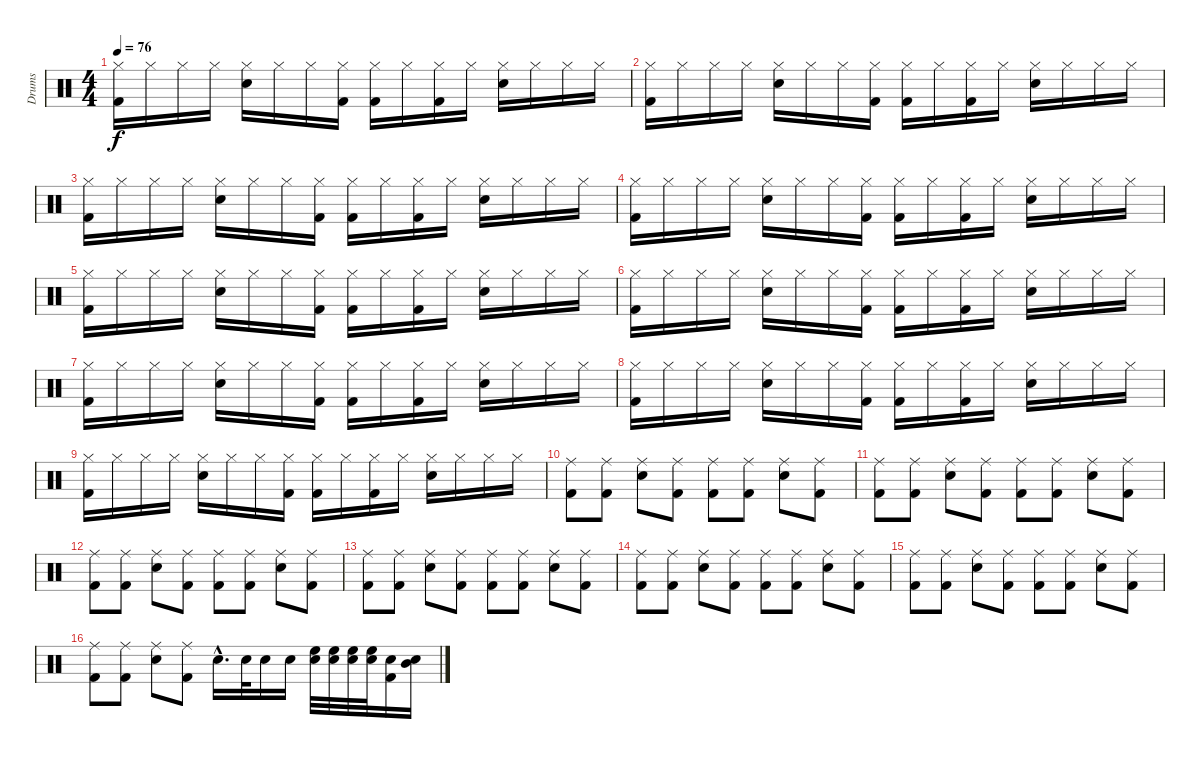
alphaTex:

\track ("Drums" "Drums") {instrument percussion}
\staff {score}
\articulation defaults
\ts (4 4)
\tempo 76
\clef neutral
\ks c
("Hi-Hat (closed)" "Kick (hit) 2").16{dy f} "Hi-Hat (closed)".16 "Hi-Hat (closed)".16 "Hi-Hat (closed)".16 ("Hi-Hat (closed)" "Snare (hit) 2").16 "Hi-Hat (closed)".16 "Hi-Hat (closed)".16 ("Hi-Hat (closed)" "Kick (hit) 2").16 ("Hi-Hat (closed)" "Kick (hit) 2").16 "Hi-Hat (closed)".16 ("Hi-Hat (closed)" "Kick (hit) 2").16 "Hi-Hat (closed)".16 ("Hi-Hat (closed)" "Snare (hit) 2").16 "Hi-Hat (closed)".16 "Hi-Hat (closed)".16 "Hi-Hat (closed)".16 |
("Hi-Hat (closed)" "Kick (hit) 2").16 "Hi-Hat (closed)".16 "Hi-Hat (closed)".16 "Hi-Hat (closed)".16 ("Hi-Hat (closed)" "Snare (hit) 2").16 "Hi-Hat (closed)".16 "Hi-Hat (closed)".16 ("Hi-Hat (closed)" "Kick (hit) 2").16 ("Hi-Hat (closed)" "Kick (hit) 2").16 "Hi-Hat (closed)".16 ("Hi-Hat (closed)" "Kick (hit) 2").16 "Hi-Hat (closed)".16 ("Hi-Hat (closed)" "Snare (hit) 2").16 "Hi-Hat (closed)".16 "Hi-Hat (closed)".16 "Hi-Hat (closed)".16 |
("Hi-Hat (closed)" "Kick (hit) 2").16 "Hi-Hat (closed)".16 "Hi-Hat (closed)".16 "Hi-Hat (closed)".16 ("Hi-Hat (closed)" "Snare (hit) 2").16 "Hi-Hat (closed)".16 "Hi-Hat (closed)".16 ("Hi-Hat (closed)" "Kick (hit) 2").16 ("Hi-Hat (closed)" "Kick (hit) 2").16 "Hi-Hat (closed)".16 ("Hi-Hat (closed)" "Kick (hit) 2").16 "Hi-Hat (closed)".16 ("Hi-Hat (closed)" "Snare (hit) 2").16 "Hi-Hat (closed)".16 "Hi-Hat (closed)".16 "Hi-Hat (closed)".16 |
("Hi-Hat (closed)" "Kick (hit) 2").16 "Hi-Hat (closed)".16 "Hi-Hat (closed)".16 "Hi-Hat (closed)".16 ("Hi-Hat (closed)" "Snare (hit) 2").16 "Hi-Hat (closed)".16 "Hi-Hat (closed)".16 ("Hi-Hat (closed)" "Kick (hit) 2").16 ("Hi-Hat (closed)" "Kick (hit) 2").16 "Hi-Hat (closed)".16 ("Hi-Hat (closed)" "Kick (hit) 2").16 "Hi-Hat (closed)".16 ("Hi-Hat (closed)" "Snare (hit) 2").16 "Hi-Hat (closed)".16 "Hi-Hat (closed)".16 "Hi-Hat (closed)".16 |
("Hi-Hat (closed)" "Kick (hit) 2").16 "Hi-Hat (closed)".16 "Hi-Hat (closed)".16 "Hi-Hat (closed)".16 ("Hi-Hat (closed)" "Snare (hit) 2").16 "Hi-Hat (closed)".16 "Hi-Hat (closed)".16 ("Hi-Hat (closed)" "Kick (hit) 2").16 ("Hi-Hat (closed)" "Kick (hit) 2").16 "Hi-Hat (closed)".16 ("Hi-Hat (closed)" "Kick (hit) 2").16 "Hi-Hat (closed)".16 ("Hi-Hat (closed)" "Snare (hit) 2").16 "Hi-Hat (closed)".16 "Hi-Hat (closed)".16 "Hi-Hat (closed)".16 |
("Hi-Hat (closed)" "Kick (hit) 2").16 "Hi-Hat (closed)".16 "Hi-Hat (closed)".16 "Hi-Hat (closed)".16 ("Hi-Hat (closed)" "Snare (hit) 2").16 "Hi-Hat (closed)".16 "Hi-Hat (closed)".16 ("Hi-Hat (closed)" "Kick (hit) 2").16 ("Hi-Hat (closed)" "Kick (hit) 2").16 "Hi-Hat (closed)".16 ("Hi-Hat (closed)" "Kick (hit) 2").16 "Hi-Hat (closed)".16 ("Hi-Hat (closed)" "Snare (hit) 2").16 "Hi-Hat (closed)".16 "Hi-Hat (closed)".16 "Hi-Hat (closed)".16 |
("Hi-Hat (closed)" "Kick (hit) 2").16 "Hi-Hat (closed)".16 "Hi-Hat (closed)".16 "Hi-Hat (closed)".16 ("Hi-Hat (closed)" "Snare (hit) 2").16 "Hi-Hat (closed)".16 "Hi-Hat (closed)".16 ("Hi-Hat (closed)" "Kick (hit) 2").16 ("Hi-Hat (closed)" "Kick (hit) 2").16 "Hi-Hat (closed)".16 ("Hi-Hat (closed)" "Kick (hit) 2").16 "Hi-Hat (closed)".16 ("Hi-Hat (closed)" "Snare (hit) 2").16 "Hi-Hat (closed)".16 "Hi-Hat (closed)".16 "Hi-Hat (closed)".16 |
("Hi-Hat (closed)" "Kick (hit) 2").16 "Hi-Hat (closed)".16 "Hi-Hat (closed)".16 "Hi-Hat (closed)".16 ("Hi-Hat (closed)" "Snare (hit) 2").16 "Hi-Hat (closed)".16 "Hi-Hat (closed)".16 ("Hi-Hat (closed)" "Kick (hit) 2").16 ("Hi-Hat (closed)" "Kick (hit) 2").16 "Hi-Hat (closed)".16 ("Hi-Hat (closed)" "Kick (hit) 2").16 "Hi-Hat (closed)".16 ("Hi-Hat (closed)" "Snare (hit) 2").16 "Hi-Hat (closed)".16 "Hi-Hat (closed)".16 "Hi-Hat (closed)".16 |
("Hi-Hat (closed)" "Kick (hit) 2").16 "Hi-Hat (closed)".16 "Hi-Hat (closed)".16 "Hi-Hat (closed)".16 ("Hi-Hat (closed)" "Snare (hit) 2").16 "Hi-Hat (closed)".16 "Hi-Hat (closed)".16 ("Hi-Hat (closed)" "Kick (hit) 2").16 ("Hi-Hat (closed)" "Kick (hit) 2").16 "Hi-Hat (closed)".16 ("Hi-Hat (closed)" "Kick (hit) 2").16 "Hi-Hat (closed)".16 ("Hi-Hat (closed)" "Snare (hit) 2").16 "Hi-Hat (closed)".16 "Hi-Hat (closed)".16 "Hi-Hat (closed)".16 |
("Ride (middle)" "Kick (hit) 2").8 ("Ride (middle)" "Kick (hit) 2").8 ("Ride (middle)" "Snare (hit) 2").8 ("Ride (middle)" "Kick (hit) 2").8 ("Ride (middle)" "Kick (hit) 2").8 ("Ride (middle)" "Kick (hit) 2").8 ("Ride (middle)" "Snare (hit) 2").8 ("Ride (middle)" "Kick (hit) 2").8 |
("Ride (middle)" "Kick (hit) 2").8 ("Ride (middle)" "Kick (hit) 2").8 ("Ride (middle)" "Snare (hit) 2").8 ("Ride (middle)" "Kick (hit) 2").8 ("Ride (middle)" "Kick (hit) 2").8 ("Ride (middle)" "Kick (hit) 2").8 ("Ride (middle)" "Snare (hit) 2").8 ("Ride (middle)" "Kick (hit) 2").8 |
("Ride (middle)" "Kick (hit) 2").8 ("Ride (middle)" "Kick (hit) 2").8 ("Ride (middle)" "Snare (hit) 2").8 ("Ride (middle)" "Kick (hit) 2").8 ("Ride (middle)" "Kick (hit) 2").8 ("Ride (middle)" "Kick (hit) 2").8 ("Ride (middle)" "Snare (hit) 2").8 ("Ride (middle)" "Kick (hit) 2").8 |
("Ride (middle)" "Kick (hit) 2").8 ("Ride (middle)" "Kick (hit) 2").8 ("Ride (middle)" "Snare (hit) 2").8 ("Ride (middle)" "Kick (hit) 2").8 ("Ride (middle)" "Kick (hit) 2").8 ("Ride (middle)" "Kick (hit) 2").8 ("Ride (middle)" "Snare (hit) 2").8 ("Ride (middle)" "Kick (hit) 2").8 |
("Ride (middle)" "Kick (hit) 2").8 ("Ride (middle)" "Kick (hit) 2").8 ("Ride (middle)" "Snare (hit) 2").8 ("Ride (middle)" "Kick (hit) 2").8 ("Ride (middle)" "Kick (hit) 2").8 ("Ride (middle)" "Kick (hit) 2").8 ("Ride (middle)" "Snare (hit) 2").8 ("Ride (middle)" "Kick (hit) 2").8 |
("Ride (middle)" "Kick (hit) 2").8 ("Ride (middle)" "Kick (hit) 2").8 ("Ride (middle)" "Snare (hit) 2").8 ("Ride (middle)" "Kick (hit) 2").8 ("Ride (middle)" "Kick (hit) 2").8 ("Ride (middle)" "Kick (hit) 2").8 ("Ride (middle)" "Snare (hit) 2").8 ("Ride (middle)" "Kick (hit) 2").8 |
("Ride (middle)" "Kick (hit) 2").8 ("Ride (middle)" "Kick (hit) 2").8 ("Ride (middle)" "Snare (hit) 2").8 ("Ride (middle)" "Kick (hit) 2").8 "Snare (hit) 2"{hac}.16{d} "Snare (hit) 2".32 "Snare (hit) 2".16 "Snare (hit) 2".16 ("Snare (hit) 2" "High Floor Tom (hit)").32 ("Snare (hit) 2" "High Floor Tom (hit)").32 ("Snare (hit) 2" "High Floor Tom (hit)").32 ("Snare (hit) 2" "High Floor Tom (hit)").32 ("Snare (hit) 2" "Kick (hit) 2").16 ("Snare (hit) 2" "Mid Tom (hit)").16
